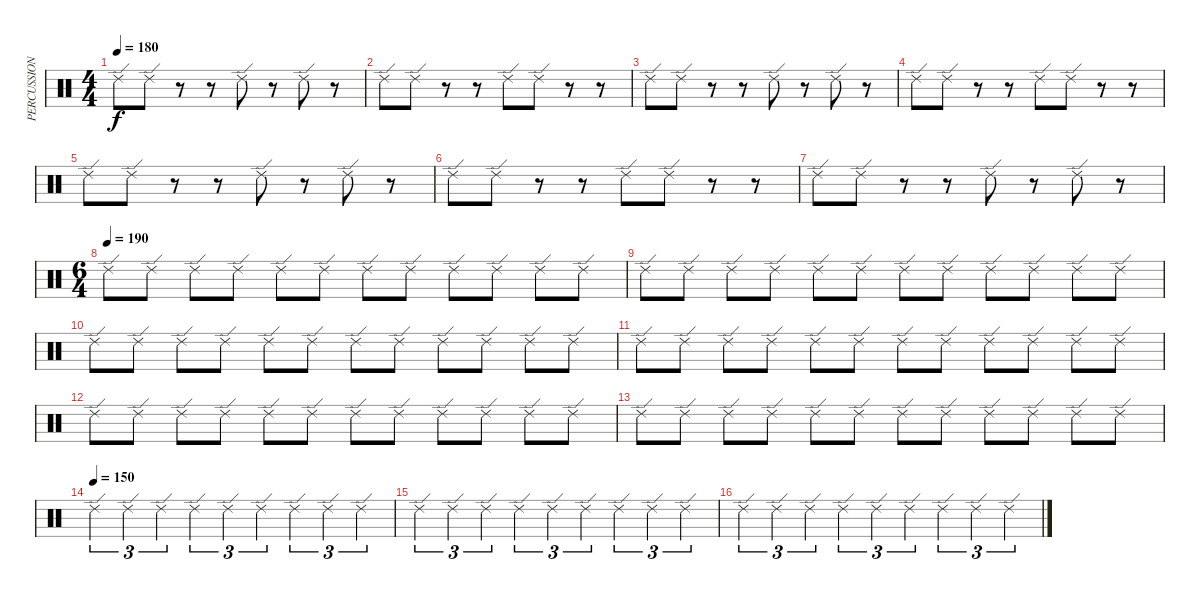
\track ("PERCUSSION" "PERCUSSION") {instrument percussion}
\staff {score}
\articulation defaults
\ts (4 4)
\tempo 180
\clef neutral
\ks c "Ride (edge) 2".8{dy f} "Ride (edge) 2".8
r.8 r.8 "Ride (edge) 2".8 r.8 "Ride (edge) 2".8 r.8 |
"Ride (edge) 2".8 "Ride (edge) 2".8 r.8 r.8 "Ride (edge) 2".8 "Ride (edge) 2".8 r.8 r.8 |
"Ride (edge) 2".8 "Ride (edge) 2".8 r.8 r.8 "Ride (edge) 2".8 r.8 "Ride (edge) 2".8 r.8 |
"Ride (edge) 2".8 "Ride (edge) 2".8 r.8 r.8 "Ride (edge) 2".8 "Ride (edge) 2".8 r.8 r.8 |
"Ride (edge) 2".8 "Ride (edge) 2".8 r.8 r.8 "Ride (edge) 2".8 r.8 "Ride (edge) 2".8 r.8 |
"Ride (edge) 2".8 "Ride (edge) 2".8 r.8 r.8 "Ride (edge) 2".8 "Ride (edge) 2".8 r.8 r.8 |
"Ride (edge) 2".8 "Ride (edge) 2".8 r.8 r.8 "Ride (edge) 2".8 r.8 "Ride (edge) 2".8 r.8 |
\ts (6 4)
\tempo (190)
"Ride (edge) 2".8 "Ride (edge) 2".8 "Ride (edge) 2".8 "Ride (edge) 2".8 "Ride (edge) 2".8 "Ride (edge) 2".8 "Ride (edge) 2".8 "Ride (edge) 2".8 "Ride (edge) 2".8 "Ride (edge) 2".8 "Ride (edge) 2".8 "Ride (edge) 2".8 |
"Ride (edge) 2".8 "Ride (edge) 2".8 "Ride (edge) 2".8 "Ride (edge) 2".8 "Ride (edge) 2".8 "Ride (edge) 2".8 "Ride (edge) 2".8 "Ride (edge) 2".8 "Ride (edge) 2".8 "Ride (edge) 2".8 "Ride (edge) 2".8 "Ride (edge) 2".8 |
"Ride (edge) 2".8 "Ride (edge) 2".8 "Ride (edge) 2".8 "Ride (edge) 2".8 "Ride (edge) 2".8 "Ride (edge) 2".8 "Ride (edge) 2".8 "Ride (edge) 2".8 "Ride (edge) 2".8 "Ride (edge) 2".8 "Ride (edge) 2".8 "Ride (edge) 2".8 |
"Ride (edge) 2".8 "Ride (edge) 2".8 "Ride (edge) 2".8 "Ride (edge) 2".8 "Ride (edge) 2".8 "Ride (edge) 2".8 "Ride (edge) 2".8 "Ride (edge) 2".8 "Ride (edge) 2".8 "Ride (edge) 2".8 "Ride (edge) 2".8 "Ride (edge) 2".8 |
"Ride (edge) 2".8 "Ride (edge) 2".8 "Ride (edge) 2".8 "Ride (edge) 2".8 "Ride (edge) 2".8 "Ride (edge) 2".8 "Ride (edge) 2".8 "Ride (edge) 2".8 "Ride (edge) 2".8 "Ride (edge) 2".8 "Ride (edge) 2".8 "Ride (edge) 2".8 |
"Ride (edge) 2".8 "Ride (edge) 2".8 "Ride (edge) 2".8 "Ride (edge) 2".8 "Ride (edge) 2".8 "Ride (edge) 2".8 "Ride (edge) 2".8 "Ride (edge) 2".8 "Ride (edge) 2".8 "Ride (edge) 2".8 "Ride (edge) 2".8 "Ride (edge) 2".8 |
\tempo (150)
"Ride (edge) 2".4{tu (3 2)} "Ride (edge) 2".4{tu (3 2)} "Ride (edge) 2".4{tu (3 2)} "Ride (edge) 2".4{tu (3 2)} "Ride (edge) 2".4{tu (3 2)} "Ride (edge) 2".4{tu (3 2)} "Ride (edge) 2".4{tu (3 2)} "Ride (edge) 2".4{tu (3 2)} "Ride (edge) 2".4{tu (3 2)} |
"Ride (edge) 2".4{tu (3 2)} "Ride (edge) 2".4{tu (3 2)} "Ride (edge) 2".4{tu (3 2)} "Ride (edge) 2".4{tu (3 2)} "Ride (edge) 2".4{tu (3 2)} "Ride (edge) 2".4{tu (3 2)} "Ride (edge) 2".4{tu (3 2)} "Ride (edge) 2".4{tu (3 2)} "Ride (edge) 2".4{tu (3 2)} |
"Ride (edge) 2".4{tu (3 2)} "Ride (edge) 2".4{tu (3 2)} "Ride (edge) 2".4{tu (3 2)} "Ride (edge) 2".4{tu (3 2)} "Ride (edge) 2".4{tu (3 2)} "Ride (edge) 2".4{tu (3 2)} "Ride (edge) 2".4{tu (3 2)} "Ride (edge) 2".4{tu (3 2)} "Ride (edge) 2".4{tu (3 2)}
